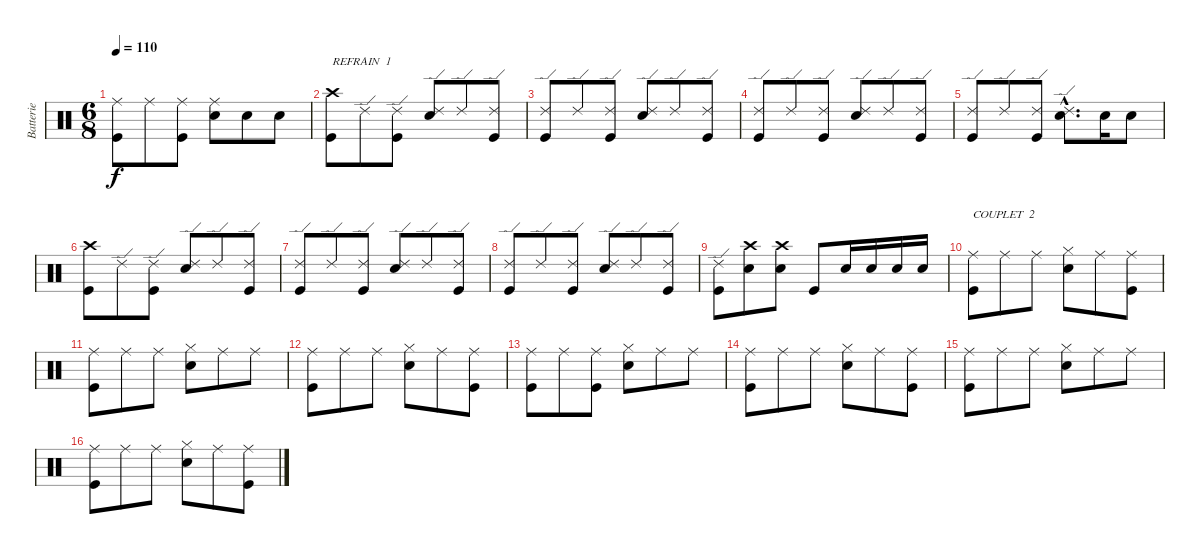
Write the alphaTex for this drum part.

\track ("Batterie" "Batterie") {instrument percussion}
\staff {score}
\articulation defaults
\ts (6 8)
\tempo 110
\clef neutral
\ks c
("Ride (middle)" "Kick (hit)").8{dy f} "Ride (middle)".8 ("Ride (middle)" "Kick (hit)").8 ("Ride (middle)" "Snare (hit) 2").8 "Snare (hit) 2".8 "Snare (hit) 2".8 |
("Crash high (hit)" "Kick (hit)").8{txt "REFRAIN  1"} "Ride (edge) 2".8 ("Ride (edge) 2" "Kick (hit)").8 ("Ride (edge) 2" "Snare (hit) 2").8 "Ride (edge) 2".8 ("Ride (edge) 2" "Kick (hit)").8 |
("Ride (edge) 2" "Kick (hit)").8 "Ride (edge) 2".8 ("Ride (edge) 2" "Kick (hit)").8 ("Ride (edge) 2" "Snare (hit) 2").8 "Ride (edge) 2".8 ("Ride (edge) 2" "Kick (hit)").8 |
("Ride (edge) 2" "Kick (hit)").8 "Ride (edge) 2".8 ("Ride (edge) 2" "Kick (hit)").8 ("Ride (edge) 2" "Snare (hit) 2").8 "Ride (edge) 2".8 ("Ride (edge) 2" "Kick (hit)").8 |
("Ride (edge) 2" "Kick (hit)").8 "Ride (edge) 2".8 ("Ride (edge) 2" "Kick (hit)").8 ("Ride (edge) 2"{hac} "Snare (hit) 2"{hac}).8{d} "Snare (hit) 2".16 "Snare (hit) 2".8 |
("Crash high (hit)" "Kick (hit)").8 "Ride (edge) 2".8 ("Ride (edge) 2" "Kick (hit)").8 ("Ride (edge) 2" "Snare (hit) 2").8 "Ride (edge) 2".8 ("Ride (edge) 2" "Kick (hit)").8 |
("Ride (edge) 2" "Kick (hit)").8 "Ride (edge) 2".8 ("Ride (edge) 2" "Kick (hit)").8 ("Ride (edge) 2" "Snare (hit) 2").8 "Ride (edge) 2".8 ("Ride (edge) 2" "Kick (hit)").8 |
("Ride (edge) 2" "Kick (hit)").8 "Ride (edge) 2".8 ("Ride (edge) 2" "Kick (hit)").8 ("Ride (edge) 2" "Snare (hit) 2").8 "Ride (edge) 2".8 ("Ride (edge) 2" "Kick (hit)").8 |
("Ride (edge) 2" "Kick (hit)").8 ("Crash high (hit)" "Snare (hit) 2").8 ("Crash high (hit)" "Snare (hit) 2").8 "Kick (hit)".8 "Snare (hit) 2".16 "Snare (hit) 2".16 "Snare (hit) 2".16 "Snare (hit) 2".16 |
("Ride (middle)" "Kick (hit)").8{txt "COUPLET  2"} "Ride (middle)".8 "Ride (middle)".8 ("Hi-Hat (closed)" "Snare (hit) 2").8 "Ride (middle)".8 ("Ride (middle)" "Kick (hit)").8 |
("Ride (middle)" "Kick (hit)").8 "Ride (middle)".8 "Ride (middle)".8 ("Hi-Hat (closed)" "Snare (hit) 2").8 "Ride (middle)".8 "Ride (middle)".8 |
("Ride (middle)" "Kick (hit)").8 "Ride (middle)".8 "Ride (middle)".8 ("Hi-Hat (closed)" "Snare (hit) 2").8 "Ride (middle)".8 ("Ride (middle)" "Kick (hit)").8 |
("Ride (middle)" "Kick (hit)").8 "Ride (middle)".8 ("Ride (middle)" "Kick (hit)").8 ("Hi-Hat (closed)" "Snare (hit) 2").8 "Ride (middle)".8 "Ride (middle)".8 |
("Ride (middle)" "Kick (hit)").8 "Ride (middle)".8 "Ride (middle)".8 ("Hi-Hat (closed)" "Snare (hit) 2").8 "Ride (middle)".8 ("Ride (middle)" "Kick (hit)").8 |
("Ride (middle)" "Kick (hit)").8 "Ride (middle)".8 "Ride (middle)".8 ("Hi-Hat (closed)" "Snare (hit) 2").8 "Ride (middle)".8 "Ride (middle)".8 |
("Ride (middle)" "Kick (hit)").8 "Ride (middle)".8 "Ride (middle)".8 ("Hi-Hat (closed)" "Snare (hit) 2").8 "Ride (middle)".8 ("Ride (middle)" "Kick (hit)").8
